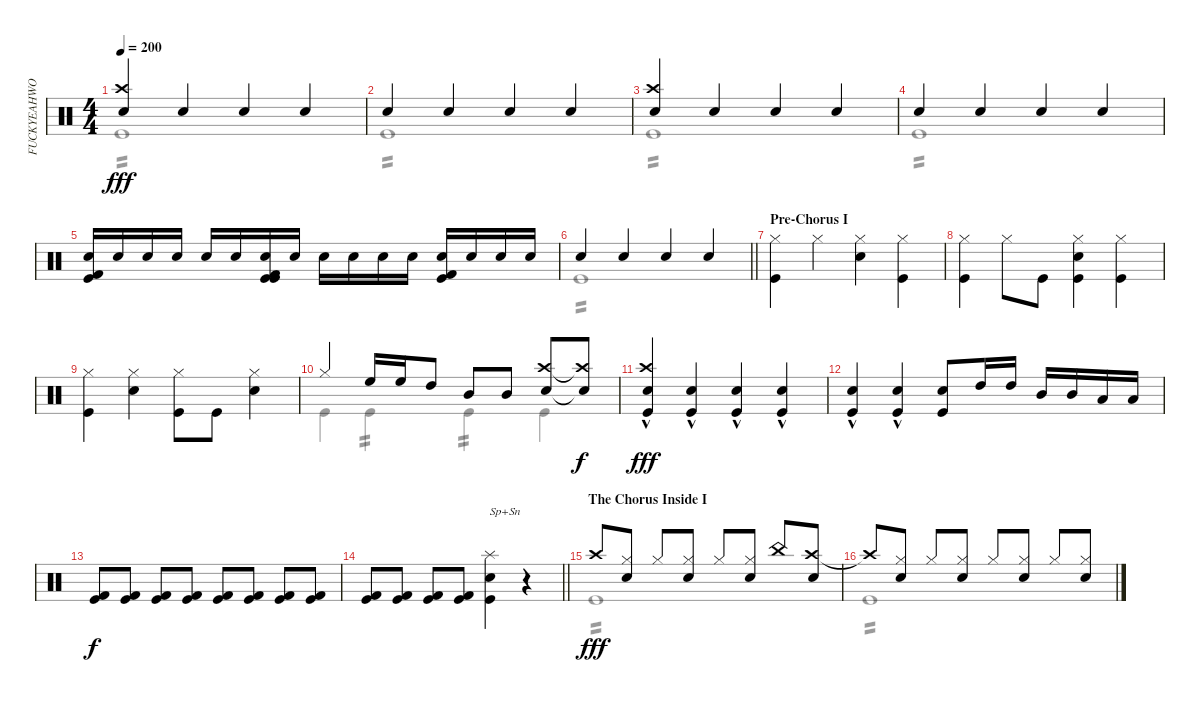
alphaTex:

\track ("FUCKYEAHWOOTDAVEMACKINTOSH!(Percussion)" "FUCKYEAHWO") {instrument percussion}
\staff {score}
\articulation defaults
\voice
\ts (4 4)
\tempo 200
\clef neutral
\ks c
("Snare (hit) 2" "Crash high (hit)").4{dy fff} "Snare (hit) 2".4 "Snare (hit) 2".4 "Snare (hit) 2".4 |
"Snare (hit) 2".4 "Snare (hit) 2".4 "Snare (hit) 2".4 "Snare (hit) 2".4 |
("Snare (hit) 2" "Crash high (hit)").4 "Snare (hit) 2".4 "Snare (hit) 2".4 "Snare (hit) 2".4 |
"Snare (hit) 2".4 "Snare (hit) 2".4 "Snare (hit) 2".4 "Snare (hit) 2".4 |
("Snare (hit) 2" "Kick (hit)" "Kick (hit) 2").16 "Snare (hit) 2".16 "Snare (hit) 2".16 "Snare (hit) 2".16 "Snare (hit) 2".16 "Snare (hit) 2".16 ("Snare (hit) 2" "Kick (hit) 2" "Kick (hit)" "Kick (hit)").16 "Snare (hit) 2".16 "Snare (hit) 2".16 "Snare (hit) 2".16 "Snare (hit) 2".16 "Snare (hit) 2".16 ("Snare (hit) 2" "Kick (hit)" "Kick (hit) 2").16 "Snare (hit) 2".16 "Snare (hit) 2".16 "Snare (hit) 2".16 |
\barLineRight lightlight "Snare (hit) 2".4 "Snare (hit) 2".4 "Snare (hit) 2".4 "Snare (hit) 2".4
|
\section ("" "Pre-Chorus I")
("Kick (hit)" "Hi-Hat (closed)").4 "Hi-Hat (closed)".4 ("Hi-Hat (closed)" "Snare (hit) 2").4 ("Hi-Hat (closed)" "Kick (hit)").4 |
("Hi-Hat (closed)" "Kick (hit)").4 "Hi-Hat (closed)".8 "Kick (hit)".8 ("Kick (hit)" "Snare (hit) 2" "Hi-Hat (closed)").4 ("Kick (hit)" "Hi-Hat (closed)").4 |
("Hi-Hat (closed)" "Kick (hit)").4 ("Hi-Hat (closed)" "Snare (hit) 2").4 ("Kick (hit)" "Hi-Hat (closed)").8 "Kick (hit)".8 ("Snare (hit) 2" "Hi-Hat (closed)").4 |
"Hi-Hat (closed)".4 "High Floor Tom (hit)".16 "High Floor Tom (hit)".16 "High Tom (hit)".8 "Mid Tom (hit)".8 "Mid Tom (hit)".8 ("Snare (hit) 2" "Crash high (hit)").8 ("Snare (hit) 2"{t} "Crash high (hit)"{t}).8{dy f} |
("Kick (hit)"{hac} "Snare (hit) 2"{hac} "Crash high (hit)"{hac}).4{dy fff} ("Kick (hit)"{hac} "Snare (hit) 2"{hac}).4 ("Kick (hit)"{hac} "Snare (hit) 2"{hac}).4 ("Kick (hit)"{hac} "Snare (hit) 2"{hac}).4 |
("Kick (hit)"{hac} "Snare (hit) 2"{hac}).4 ("Kick (hit)"{hac} "Snare (hit) 2"{hac}).4 ("Kick (hit)" "Snare (hit) 2").8 "High Tom (hit)".16 "High Tom (hit)".16 "Mid Tom (hit)".16 "Mid Tom (hit)".16 "Low Tom (hit)".16 "Low Tom (hit)".16 |
("Kick (hit)" "Kick (hit) 2").8{dy f} ("Kick (hit)" "Kick (hit) 2").8 ("Kick (hit)" "Kick (hit) 2").8 ("Kick (hit)" "Kick (hit) 2").8 ("Kick (hit)" "Kick (hit) 2").8 ("Kick (hit)" "Kick (hit) 2").8 ("Kick (hit)" "Kick (hit) 2").8 ("Kick (hit)" "Kick (hit) 2").8 |
\barLineRight lightlight
("Kick (hit) 2" "Kick (hit)").8 ("Kick (hit)" "Kick (hit) 2").8 ("Kick (hit)" "Kick (hit) 2").8 ("Kick (hit)" "Kick (hit) 2").8 ("Kick (hit)" "Snare (hit) 2" "Splash (hit)").4{txt "Sp+Sn"} r.4 |
\section ("" "The Chorus Inside I")
"Crash high (hit)".8{dy fff} ("Hi-Hat (closed)" "Snare (hit) 2").8 "Hi-Hat (closed)".8 ("Hi-Hat (closed)" "Snare (hit) 2").8 "Hi-Hat (closed)".8 ("Hi-Hat (closed)" "Snare (hit) 2").8 "China (hit)".8 ("Crash high (hit)" "Snare (hit) 2").8 |
"Crash high (hit)"{t}.8 ("Hi-Hat (closed)" "Snare (hit) 2").8 "Hi-Hat (closed)".8 ("Hi-Hat (closed)" "Snare (hit) 2").8 "Hi-Hat (closed)".8 ("Hi-Hat (closed)" "Snare (hit) 2").8 "Hi-Hat (closed)".8 ("Hi-Hat (closed)" "Snare (hit) 2").8
\voice
\clef neutral
\ottava regular
\simile none
\ks c "Kick (hit)".1{tp 2 dy fff}
|
"Kick (hit)".1{tp 2} |
"Kick (hit)".1{tp 2} |
"Kick (hit)".1{tp 2} |
|
\barLineRight lightlight "Kick (hit)".1{tp 2}
|
|
|
|
"Kick (hit)".4 "Kick (hit)".4{tp 2} "Kick (hit)".4{tp 2} "Kick (hit)".4 |
|
|
|
\barLineRight lightlight
|
"Kick (hit)".1{tp 2} |
"Kick (hit)".1{tp 2}
